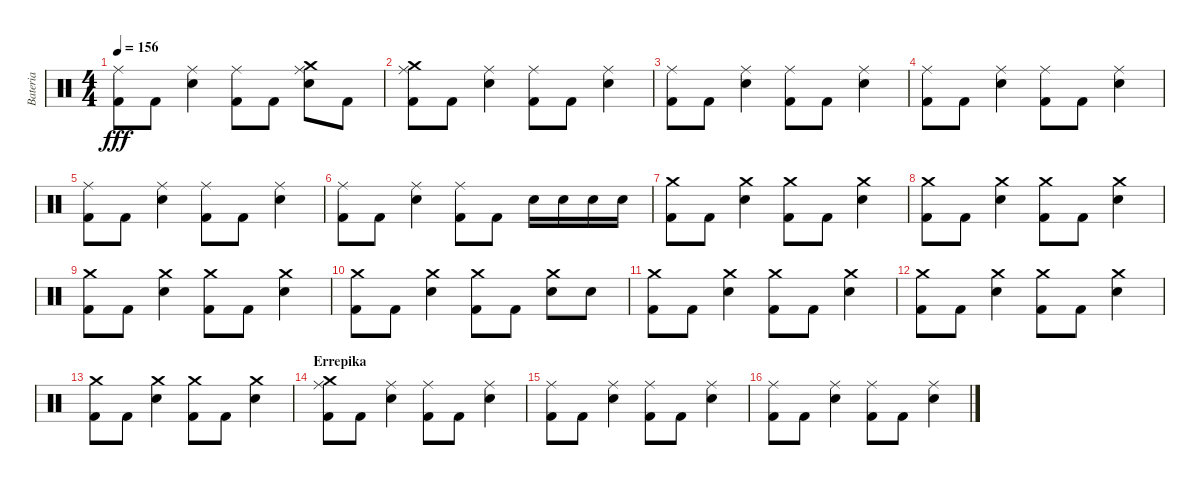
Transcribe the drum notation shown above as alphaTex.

\track ("Bateria" "Bateria") {instrument percussion}
\staff {score}
\articulation defaults
\ts (4 4)
\tempo 156
\clef neutral
\ks c
("Ride (middle)" "Kick (hit) 2").8{dy fff} "Kick (hit) 2".8 ("Ride (middle)" "Electric Snare (hit)").4 ("Ride (middle)" "Kick (hit) 2").8 "Kick (hit) 2".8 ("Ride (middle)" "Electric Snare (hit)" "Crash medium (hit)").8 "Kick (hit) 2".8 |
("Ride (middle)" "Kick (hit) 2" "Crash medium (hit)").8 "Kick (hit) 2".8 ("Ride (middle)" "Electric Snare (hit)").4 ("Ride (middle)" "Kick (hit) 2").8 "Kick (hit) 2".8 ("Ride (middle)" "Electric Snare (hit)").4 |
("Ride (middle)" "Kick (hit) 2").8 "Kick (hit) 2".8 ("Ride (middle)" "Electric Snare (hit)").4 ("Ride (middle)" "Kick (hit) 2").8 "Kick (hit) 2".8 ("Ride (middle)" "Electric Snare (hit)").4 |
("Ride (middle)" "Kick (hit) 2").8 "Kick (hit) 2".8 ("Ride (middle)" "Electric Snare (hit)").4 ("Ride (middle)" "Kick (hit) 2").8 "Kick (hit) 2".8 ("Ride (middle)" "Electric Snare (hit)").4 |
("Ride (middle)" "Kick (hit) 2").8 "Kick (hit) 2".8 ("Ride (middle)" "Electric Snare (hit)").4 ("Ride (middle)" "Kick (hit) 2").8 "Kick (hit) 2".8 ("Ride (middle)" "Electric Snare (hit)").4 |
("Ride (middle)" "Kick (hit) 2").8 "Kick (hit) 2".8 ("Ride (middle)" "Electric Snare (hit)").4 ("Ride (middle)" "Kick (hit) 2").8 "Kick (hit) 2".8 "Electric Snare (hit)".16 "Electric Snare (hit)".16 "Electric Snare (hit)".16 "Electric Snare (hit)".16 |
("Kick (hit) 2" "Crash medium (hit)").8 "Kick (hit) 2".8 ("Electric Snare (hit)" "Crash medium (hit)").4 ("Kick (hit) 2" "Crash medium (hit)").8 "Kick (hit) 2".8 ("Electric Snare (hit)" "Crash medium (hit)").4 |
("Kick (hit) 2" "Crash medium (hit)").8 "Kick (hit) 2".8 ("Electric Snare (hit)" "Crash medium (hit)").4 ("Kick (hit) 2" "Crash medium (hit)").8 "Kick (hit) 2".8 ("Electric Snare (hit)" "Crash medium (hit)").4 |
("Kick (hit) 2" "Crash medium (hit)").8 "Kick (hit) 2".8 ("Electric Snare (hit)" "Crash medium (hit)").4 ("Kick (hit) 2" "Crash medium (hit)").8 "Kick (hit) 2".8 ("Electric Snare (hit)" "Crash medium (hit)").4 |
("Kick (hit) 2" "Crash medium (hit)").8 "Kick (hit) 2".8 ("Electric Snare (hit)" "Crash medium (hit)").4 ("Kick (hit) 2" "Crash medium (hit)").8 "Kick (hit) 2".8 ("Electric Snare (hit)" "Crash medium (hit)").8 "Electric Snare (hit)".8 |
("Kick (hit) 2" "Crash medium (hit)").8 "Kick (hit) 2".8 ("Electric Snare (hit)" "Crash medium (hit)").4 ("Kick (hit) 2" "Crash medium (hit)").8 "Kick (hit) 2".8 ("Electric Snare (hit)" "Crash medium (hit)").4 |
("Kick (hit) 2" "Crash medium (hit)").8 "Kick (hit) 2".8 ("Electric Snare (hit)" "Crash medium (hit)").4 ("Kick (hit) 2" "Crash medium (hit)").8 "Kick (hit) 2".8 ("Electric Snare (hit)" "Crash medium (hit)").4 |
("Kick (hit) 2" "Crash medium (hit)").8 "Kick (hit) 2".8 ("Electric Snare (hit)" "Crash medium (hit)").4 ("Kick (hit) 2" "Crash medium (hit)").8 "Kick (hit) 2".8 ("Electric Snare (hit)" "Crash medium (hit)").4 |
\section ("" "Errepika")
("Ride (middle)" "Kick (hit) 2" "Crash medium (hit)").8 "Kick (hit) 2".8 ("Ride (middle)" "Electric Snare (hit)").4 ("Ride (middle)" "Kick (hit) 2").8 "Kick (hit) 2".8 ("Ride (middle)" "Electric Snare (hit)").4 |
("Ride (middle)" "Kick (hit) 2").8 "Kick (hit) 2".8 ("Ride (middle)" "Electric Snare (hit)").4 ("Ride (middle)" "Kick (hit) 2").8 "Kick (hit) 2".8 ("Ride (middle)" "Electric Snare (hit)").4 |
("Ride (middle)" "Kick (hit) 2").8 "Kick (hit) 2".8 ("Ride (middle)" "Electric Snare (hit)").4 ("Ride (middle)" "Kick (hit) 2").8 "Kick (hit) 2".8 ("Ride (middle)" "Electric Snare (hit)").4
